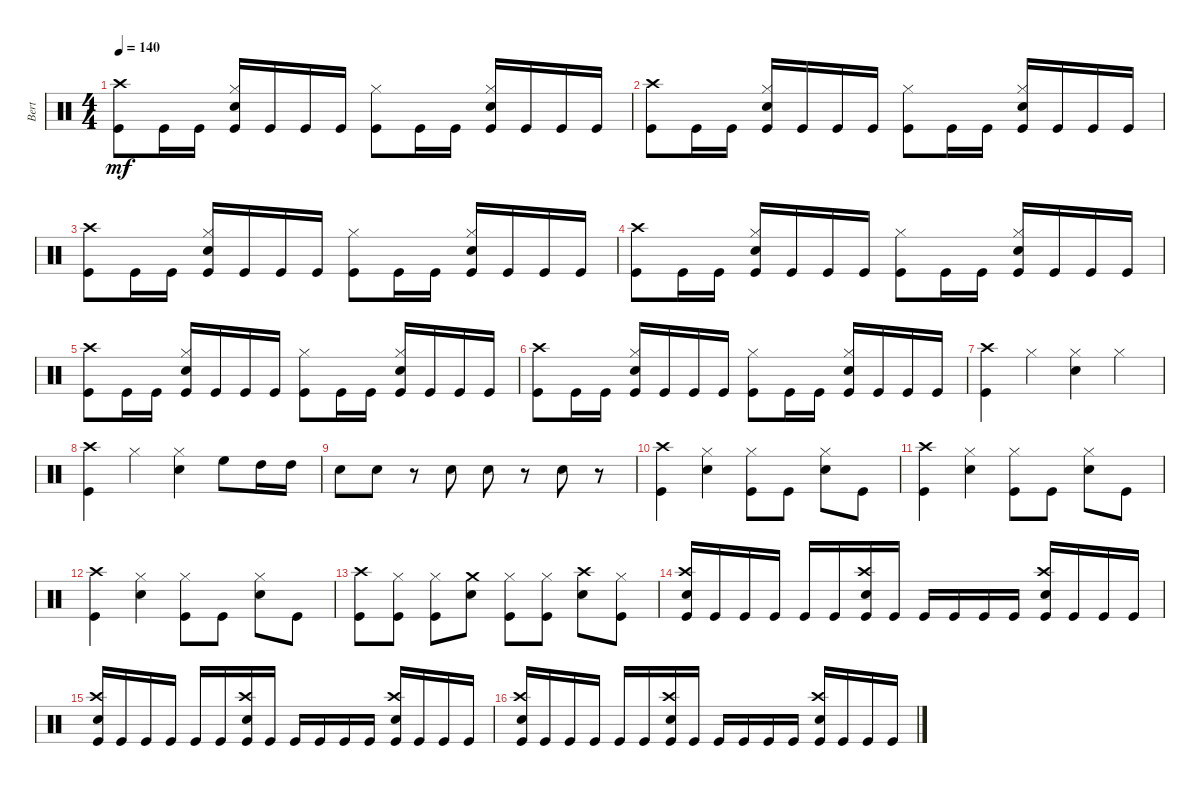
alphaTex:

\track ("Bert" "Bert") {instrument percussion}
\staff {score}
\articulation defaults
\ts (4 4)
\tempo 140
\clef neutral
\ks c
("Kick (hit)" "Crash high (hit)").8{dy mf} "Kick (hit)".16 "Kick (hit)".16 ("Hi-Hat (closed)" "Electric Snare (hit)" "Kick (hit)").16 "Kick (hit)".16 "Kick (hit)".16 "Kick (hit)".16 ("Hi-Hat (closed)" "Kick (hit)").8 "Kick (hit)".16 "Kick (hit)".16 ("Electric Snare (hit)" "Kick (hit)" "Hi-Hat (closed)").16 "Kick (hit)".16 "Kick (hit)".16 "Kick (hit)".16 |
("Crash high (hit)" "Kick (hit)").8 "Kick (hit)".16 "Kick (hit)".16 ("Hi-Hat (closed)" "Kick (hit)" "Electric Snare (hit)").16 "Kick (hit)".16 "Kick (hit)".16 "Kick (hit)".16 ("Kick (hit)" "Hi-Hat (closed)").8 "Kick (hit)".16 "Kick (hit)".16 ("Kick (hit)" "Electric Snare (hit)" "Hi-Hat (closed)").16 "Kick (hit)".16 "Kick (hit)".16 "Kick (hit)".16 |
("Kick (hit)" "Crash high (hit)").8 "Kick (hit)".16 "Kick (hit)".16 ("Kick (hit)" "Electric Snare (hit)" "Hi-Hat (closed)").16 "Kick (hit)".16 "Kick (hit)".16 "Kick (hit)".16 ("Kick (hit)" "Hi-Hat (closed)").8 "Kick (hit)".16 "Kick (hit)".16 ("Electric Snare (hit)" "Hi-Hat (closed)" "Kick (hit)").16 "Kick (hit)".16 "Kick (hit)".16 "Kick (hit)".16 |
("Kick (hit)" "Crash high (hit)").8 "Kick (hit)".16 "Kick (hit)".16 ("Hi-Hat (closed)" "Electric Snare (hit)" "Kick (hit)").16 "Kick (hit)".16 "Kick (hit)".16 "Kick (hit)".16 ("Kick (hit)" "Hi-Hat (closed)").8 "Kick (hit)".16 "Kick (hit)".16 ("Hi-Hat (closed)" "Kick (hit)" "Electric Snare (hit)").16 "Kick (hit)".16 "Kick (hit)".16 "Kick (hit)".16 |
("Kick (hit)" "Crash high (hit)").8 "Kick (hit)".16 "Kick (hit)".16 ("Electric Snare (hit)" "Hi-Hat (closed)" "Kick (hit)").16 "Kick (hit)".16 "Kick (hit)".16 "Kick (hit)".16 ("Hi-Hat (closed)" "Kick (hit)").8 "Kick (hit)".16 "Kick (hit)".16 ("Electric Snare (hit)" "Kick (hit)" "Hi-Hat (closed)").16 "Kick (hit)".16 "Kick (hit)".16 "Kick (hit)".16 |
("Kick (hit)" "Crash high (hit)").8 "Kick (hit)".16 "Kick (hit)".16 ("Electric Snare (hit)" "Kick (hit)" "Hi-Hat (closed)").16 "Kick (hit)".16 "Kick (hit)".16 "Kick (hit)".16 ("Kick (hit)" "Hi-Hat (closed)").8 "Kick (hit)".16 "Kick (hit)".16 ("Electric Snare (hit)" "Kick (hit)" "Hi-Hat (closed)").16 "Kick (hit)".16 "Kick (hit)".16 "Kick (hit)".16 |
("Kick (hit)" "Crash high (hit)").4 "Hi-Hat (closed)".4 ("Electric Snare (hit)" "Hi-Hat (closed)").4 "Hi-Hat (closed)".4 |
("Kick (hit)" "Crash high (hit)").4 "Hi-Hat (closed)".4 ("Hi-Hat (closed)" "Electric Snare (hit)").4 "High Floor Tom (hit)".8 "High Tom (hit)".16 "High Tom (hit)".16 |
"Electric Snare (hit)".8 "Electric Snare (hit)".8 r.8 "Electric Snare (hit)".8 "Electric Snare (hit)".8 r.8 "Electric Snare (hit)".8 r.8 |
("Crash high (hit)" "Kick (hit)").4 ("Hi-Hat (closed)" "Electric Snare (hit)").4 ("Kick (hit)" "Hi-Hat (closed)").8 "Kick (hit)".8 ("Electric Snare (hit)" "Hi-Hat (closed)").8 "Kick (hit)".8 |
("Crash high (hit)" "Kick (hit)").4 ("Electric Snare (hit)" "Hi-Hat (closed)").4 ("Hi-Hat (closed)" "Kick (hit)").8 "Kick (hit)".8 ("Electric Snare (hit)" "Hi-Hat (closed)").8 "Kick (hit)".8 |
("Crash high (hit)" "Kick (hit)").4 ("Hi-Hat (closed)" "Electric Snare (hit)").4 ("Hi-Hat (closed)" "Kick (hit)").8 "Kick (hit)".8 ("Hi-Hat (closed)" "Electric Snare (hit)").8 "Kick (hit)".8 |
("Crash high (hit)" "Kick (hit)").8 ("Kick (hit)" "Hi-Hat (closed)").8 ("Hi-Hat (closed)" "Kick (hit)").8 ("Electric Snare (hit)" "Crash medium (hit)").8 ("Kick (hit)" "Hi-Hat (closed)").8 ("Hi-Hat (closed)" "Kick (hit)").8 ("Electric Snare (hit)" "Crash high (hit)").8 ("Kick (hit)" "Hi-Hat (closed)").8 |
("Electric Snare (hit)" "Crash high (hit)" "Kick (hit)").16 "Kick (hit)".16 "Kick (hit)".16 "Kick (hit)".16 "Kick (hit)".16 "Kick (hit)".16 ("Kick (hit)" "Electric Snare (hit)" "Crash high (hit)").16 "Kick (hit)".16 "Kick (hit)".16 "Kick (hit)".16 "Kick (hit)".16 "Kick (hit)".16 ("Electric Snare (hit)" "Crash high (hit)" "Kick (hit)").16 "Kick (hit)".16 "Kick (hit)".16 "Kick (hit)".16 |
("Electric Snare (hit)" "Crash high (hit)" "Kick (hit)").16 "Kick (hit)".16 "Kick (hit)".16 "Kick (hit)".16 "Kick (hit)".16 "Kick (hit)".16 ("Crash high (hit)" "Electric Snare (hit)" "Kick (hit)").16 "Kick (hit)".16 "Kick (hit)".16 "Kick (hit)".16 "Kick (hit)".16 "Kick (hit)".16 ("Crash high (hit)" "Electric Snare (hit)" "Kick (hit)").16 "Kick (hit)".16 "Kick (hit)".16 "Kick (hit)".16 |
("Crash high (hit)" "Electric Snare (hit)" "Kick (hit)").16 "Kick (hit)".16 "Kick (hit)".16 "Kick (hit)".16 "Kick (hit)".16 "Kick (hit)".16 ("Crash high (hit)" "Electric Snare (hit)" "Kick (hit)").16 "Kick (hit)".16 "Kick (hit)".16 "Kick (hit)".16 "Kick (hit)".16 "Kick (hit)".16 ("Crash high (hit)" "Electric Snare (hit)" "Kick (hit)").16 "Kick (hit)".16 "Kick (hit)".16 "Kick (hit)".16
